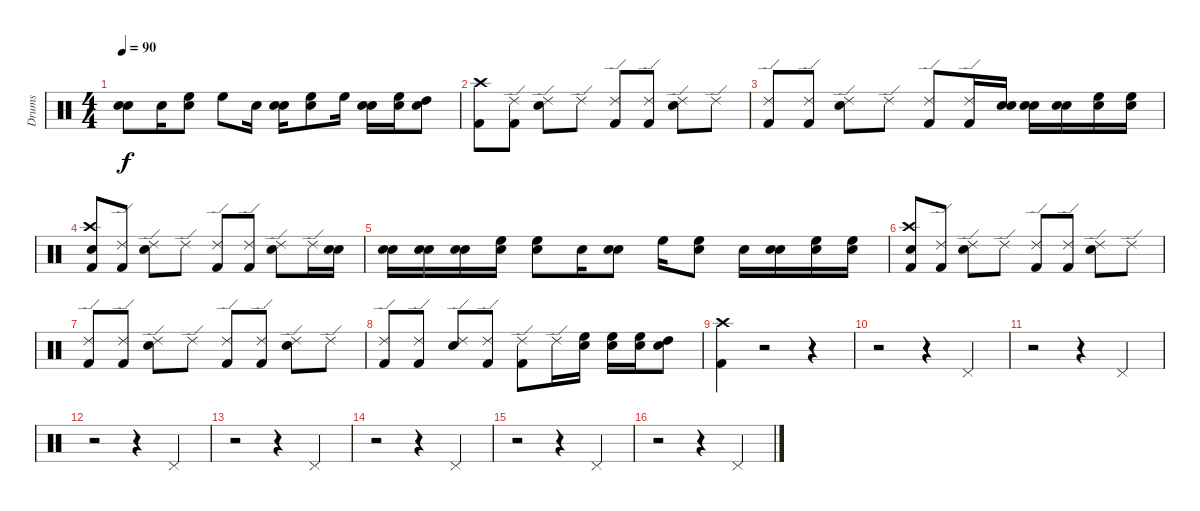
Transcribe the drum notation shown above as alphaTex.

\track ("Drums" "Drums") {instrument percussion}
\staff {score}
\articulation defaults
\ts (4 4)
\tempo 90
\clef neutral
\ks c
("Snare (hit)" "Snare (hit) 2").8{dy f} "Snare (hit) 2".16 ("Snare (hit)" "High Floor Tom (hit)").8 "High Floor Tom (hit)".8 "Snare (hit) 2".16 ("Snare (hit)" "Snare (hit) 2").16 ("Snare (hit)" "High Floor Tom (hit)").8 "High Floor Tom (hit)".16 ("Snare (hit)" "Snare (hit) 2").16 ("Snare (hit)" "High Floor Tom (hit)").16 ("Snare (hit)" "High Tom (hit)").8 |
("Crash high (hit)" "Kick (hit) 2").8 ("Ride (edge) 2" "Kick (hit) 2").8 ("Snare (hit) 2" "Ride (edge) 2").8 "Ride (edge) 2".8 ("Ride (edge) 2" "Kick (hit) 2").8 ("Ride (edge) 2" "Kick (hit) 2").8 ("Snare (hit) 2" "Ride (edge) 2").8 "Ride (edge) 2".8 |
("Ride (edge) 2" "Kick (hit) 2").8 ("Ride (edge) 2" "Kick (hit) 2").8 ("Snare (hit) 2" "Ride (edge) 2").8 "Ride (edge) 2".8 ("Ride (edge) 2" "Kick (hit) 2").8 ("Ride (edge) 2" "Kick (hit) 2").16 ("Snare (hit)" "Snare (hit) 2").16 ("Snare (hit)" "Snare (hit) 2").16 ("Snare (hit)" "Snare (hit) 2").16 ("Snare (hit)" "High Floor Tom (hit)").16 ("Snare (hit)" "High Floor Tom (hit)").16 |
("Snare (hit)" "Crash high (hit)" "Kick (hit) 2").8 ("Ride (edge) 2" "Kick (hit) 2").8 ("Snare (hit) 2" "Ride (edge) 2").8 "Ride (edge) 2".8 ("Ride (edge) 2" "Kick (hit) 2").8 ("Ride (edge) 2" "Kick (hit) 2").8 ("Snare (hit) 2" "Ride (edge) 2").8 "Ride (edge) 2".16 ("Snare (hit)" "Snare (hit) 2").16 |
("Snare (hit)" "Snare (hit) 2").16 ("Snare (hit)" "Snare (hit) 2").16 ("Snare (hit)" "Snare (hit) 2").16 ("Snare (hit)" "High Floor Tom (hit)").16 ("Snare (hit)" "High Floor Tom (hit)").8 "Snare (hit) 2".16 ("Snare (hit)" "Snare (hit) 2").8 "High Floor Tom (hit)".16 ("Snare (hit)" "High Floor Tom (hit)").8 "Snare (hit) 2".16 ("Snare (hit)" "Snare (hit) 2").16 ("Snare (hit)" "High Floor Tom (hit)").16 ("Snare (hit)" "High Floor Tom (hit)").16 |
("Snare (hit)" "Crash high (hit)" "Kick (hit) 2").8 ("Ride (edge) 2" "Kick (hit) 2").8 ("Snare (hit) 2" "Ride (edge) 2").8 "Ride (edge) 2".8 ("Ride (edge) 2" "Kick (hit) 2").8 ("Ride (edge) 2" "Kick (hit) 2").8 ("Snare (hit) 2" "Ride (edge) 2").8 "Ride (edge) 2".8 |
("Ride (edge) 2" "Kick (hit) 2").8 ("Ride (edge) 2" "Kick (hit) 2").8 ("Snare (hit) 2" "Ride (edge) 2").8 "Ride (edge) 2".8 ("Ride (edge) 2" "Kick (hit) 2").8 ("Ride (edge) 2" "Kick (hit) 2").8 ("Snare (hit) 2" "Ride (edge) 2").8 "Ride (edge) 2".8 |
("Ride (edge) 2" "Kick (hit) 2").8 ("Ride (edge) 2" "Kick (hit) 2").8 ("Snare (hit) 2" "Ride (edge) 2").8 ("Ride (edge) 2" "Kick (hit) 2").8 ("Ride (edge) 2" "Kick (hit) 2").8 "Ride (edge) 2".16 ("Snare (hit)" "High Floor Tom (hit)").16 ("Snare (hit)" "High Floor Tom (hit)").16 ("Snare (hit)" "High Floor Tom (hit)").16 ("Snare (hit)" "High Tom (hit)").8 |
("Crash high (hit)" "Kick (hit) 2").4 r.2 r.4 |
r.2 r.4 "Pedal Hi-Hat (hit)".4 |
r.2 r.4 "Pedal Hi-Hat (hit)".4 |
r.2 r.4 "Pedal Hi-Hat (hit)".4 |
r.2 r.4 "Pedal Hi-Hat (hit)".4 |
r.2 r.4 "Pedal Hi-Hat (hit)".4 |
r.2 r.4 "Pedal Hi-Hat (hit)".4 |
r.2 r.4 "Pedal Hi-Hat (hit)".4
